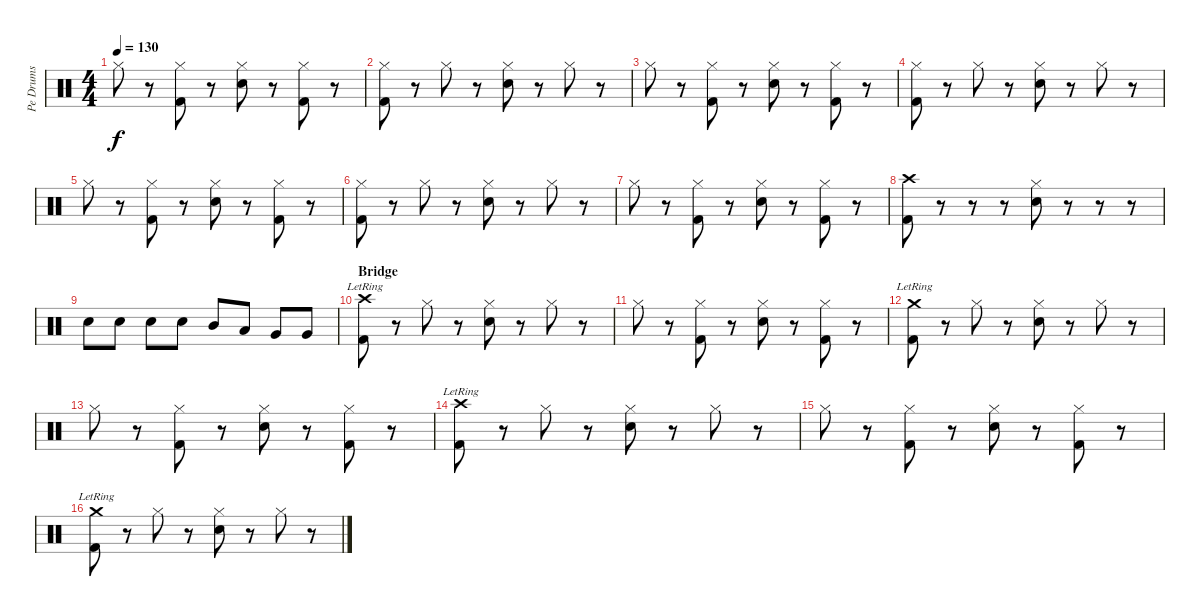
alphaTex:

\track ("Pe Drums" "Pe Drums") {instrument percussion}
\staff {score}
\articulation defaults
\ts (4 4)
\tempo 130
\clef neutral
\ks c "Hi-Hat (closed)".8{dy f}
r.8 ("Hi-Hat (closed)" "Kick (hit) 2").8 r.8 ("Hi-Hat (closed)" "Electric Snare (hit)").8 r.8 ("Hi-Hat (closed)" "Kick (hit) 2").8 r.8 |
("Hi-Hat (closed)" "Kick (hit) 2").8 r.8 "Hi-Hat (closed)".8 r.8 ("Hi-Hat (closed)" "Electric Snare (hit)").8 r.8 "Hi-Hat (closed)".8 r.8 |
"Hi-Hat (closed)".8 r.8 ("Hi-Hat (closed)" "Kick (hit) 2").8 r.8 ("Hi-Hat (closed)" "Electric Snare (hit)").8 r.8 ("Hi-Hat (closed)" "Kick (hit) 2").8 r.8 |
("Hi-Hat (closed)" "Kick (hit) 2").8 r.8 "Hi-Hat (closed)".8 r.8 ("Hi-Hat (closed)" "Electric Snare (hit)").8 r.8 "Hi-Hat (closed)".8 r.8 |
"Hi-Hat (closed)".8 r.8 ("Hi-Hat (closed)" "Kick (hit) 2").8 r.8 ("Hi-Hat (closed)" "Electric Snare (hit)").8 r.8 ("Hi-Hat (closed)" "Kick (hit) 2").8 r.8 |
("Hi-Hat (closed)" "Kick (hit) 2").8 r.8 "Hi-Hat (closed)".8 r.8 ("Hi-Hat (closed)" "Electric Snare (hit)").8 r.8 "Hi-Hat (closed)".8 r.8 |
"Hi-Hat (closed)".8 r.8 ("Hi-Hat (closed)" "Kick (hit) 2").8 r.8 ("Hi-Hat (closed)" "Electric Snare (hit)").8 r.8 ("Hi-Hat (closed)" "Kick (hit) 2").8 r.8 |
("Crash high (hit)" "Kick (hit) 2").8 r.8 r.8 r.8 ("Hi-Hat (closed)" "Electric Snare (hit)").8 r.8 r.8 r.8 |
"Electric Snare (hit)".8 "Electric Snare (hit)".8 "Electric Snare (hit)".8 "Electric Snare (hit)".8 "Mid Tom (hit)".8 "Low Tom (hit)".8 "Very Low Tom (hit)".8 "Very Low Tom (hit)".8 |
\section ("" "Bridge")
("Crash high (hit)"{lr} "Kick (hit) 2").8 r.8 "Hi-Hat (closed)".8 r.8 ("Hi-Hat (closed)" "Electric Snare (hit)").8 r.8 "Hi-Hat (closed)".8 r.8 |
"Hi-Hat (closed)".8 r.8 ("Hi-Hat (closed)" "Kick (hit) 2").8 r.8 ("Hi-Hat (closed)" "Electric Snare (hit)").8 r.8 ("Hi-Hat (closed)" "Kick (hit) 2").8 r.8 |
("Crash medium (hit)"{lr} "Kick (hit) 2").8 r.8 "Hi-Hat (closed)".8 r.8 ("Hi-Hat (closed)" "Electric Snare (hit)").8 r.8 "Hi-Hat (closed)".8 r.8 |
"Hi-Hat (closed)".8 r.8 ("Hi-Hat (closed)" "Kick (hit) 2").8 r.8 ("Hi-Hat (closed)" "Electric Snare (hit)").8 r.8 ("Hi-Hat (closed)" "Kick (hit) 2").8 r.8 |
("Crash high (hit)"{lr} "Kick (hit) 2").8 r.8 "Hi-Hat (closed)".8 r.8 ("Hi-Hat (closed)" "Electric Snare (hit)").8 r.8 "Hi-Hat (closed)".8 r.8 |
"Hi-Hat (closed)".8 r.8 ("Hi-Hat (closed)" "Kick (hit) 2").8 r.8 ("Hi-Hat (closed)" "Electric Snare (hit)").8 r.8 ("Hi-Hat (closed)" "Kick (hit) 2").8 r.8 |
("Crash medium (hit)"{lr} "Kick (hit) 2").8 r.8 "Hi-Hat (closed)".8 r.8 ("Hi-Hat (closed)" "Electric Snare (hit)").8 r.8 "Hi-Hat (closed)".8 r.8
